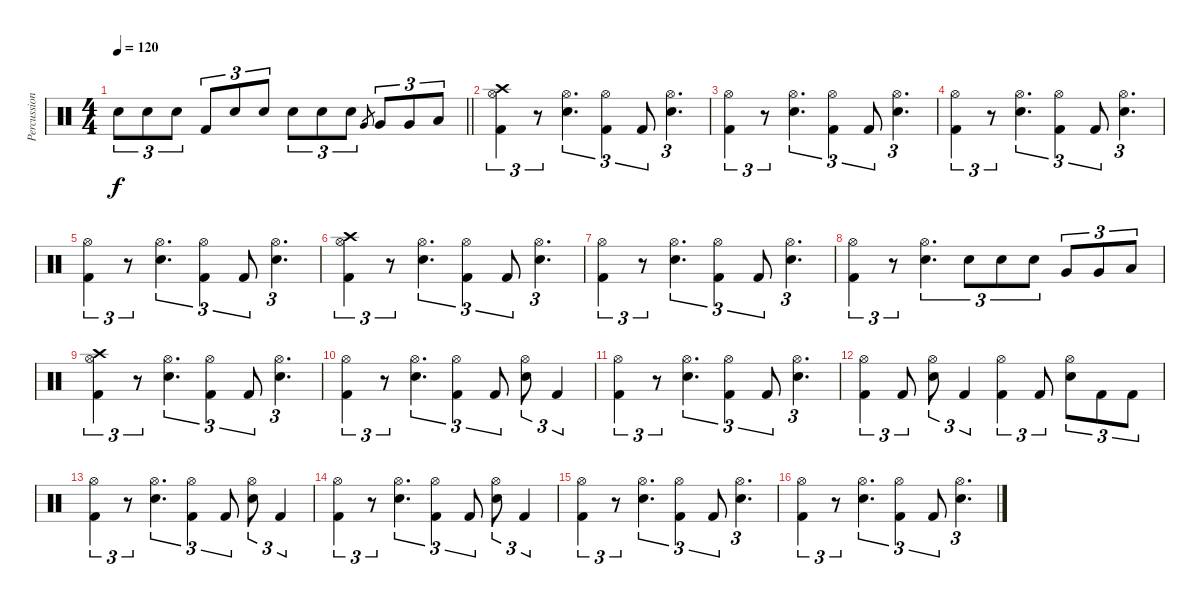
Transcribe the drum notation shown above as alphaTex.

\track ("Percussion" "Percussion") {instrument percussion}
\staff {score}
\articulation defaults
\ts (4 4)
\tempo 120
\clef neutral
\barLineRight lightlight
\ks c "Electric Snare (hit)".8{tu (3 2) dy f} "Electric Snare (hit)".8{tu (3 2)} "Electric Snare (hit)".8{tu (3 2)} "Kick (hit) 2".8{tu (3 2)} "Electric Snare (hit)".8{tu (3 2)} "Electric Snare (hit)".8{tu (3 2)} "Electric Snare (hit)".8{tu (3 2)} "Electric Snare (hit)".8{tu (3 2)} "Electric Snare (hit)".8{tu (3 2)} "Very Low Tom (hit)".8{gr} "Very Low Tom (hit)".8{tu (3 2)} "Very Low Tom (hit)".8{tu (3 2)} "Low Tom (hit)".8{tu (3 2)}
|
\section ("" "")
("Hi-Hat (open)" "Crash high (hit)" "Kick (hit) 2").4{tu (3 2)} r.8{tu (3 2)} ("Hi-Hat (open)" "Electric Snare (hit)").4{d tu (3 2)} ("Hi-Hat (open)" "Kick (hit) 2").4{tu (3 2)} "Kick (hit) 2".8{tu (3 2)} ("Hi-Hat (open)" "Electric Snare (hit)").4{d tu (3 2)} |
("Hi-Hat (open)" "Kick (hit) 2").4{tu (3 2)} r.8{tu (3 2)} ("Hi-Hat (open)" "Electric Snare (hit)").4{d tu (3 2)} ("Hi-Hat (open)" "Kick (hit) 2").4{tu (3 2)} "Kick (hit) 2".8{tu (3 2)} ("Hi-Hat (open)" "Electric Snare (hit)").4{d tu (3 2)} |
("Hi-Hat (open)" "Kick (hit) 2").4{tu (3 2)} r.8{tu (3 2)} ("Hi-Hat (open)" "Electric Snare (hit)").4{d tu (3 2)} ("Hi-Hat (open)" "Kick (hit) 2").4{tu (3 2)} "Kick (hit) 2".8{tu (3 2)} ("Hi-Hat (open)" "Electric Snare (hit)").4{d tu (3 2)} |
("Hi-Hat (open)" "Kick (hit) 2").4{tu (3 2)} r.8{tu (3 2)} ("Hi-Hat (open)" "Electric Snare (hit)").4{d tu (3 2)} ("Hi-Hat (open)" "Kick (hit) 2").4{tu (3 2)} "Kick (hit) 2".8{tu (3 2)} ("Hi-Hat (open)" "Electric Snare (hit)").4{d tu (3 2)} |
("Hi-Hat (open)" "Crash high (hit)" "Kick (hit) 2").4{tu (3 2)} r.8{tu (3 2)} ("Hi-Hat (open)" "Electric Snare (hit)").4{d tu (3 2)} ("Hi-Hat (open)" "Kick (hit) 2").4{tu (3 2)} "Kick (hit) 2".8{tu (3 2)} ("Hi-Hat (open)" "Electric Snare (hit)").4{d tu (3 2)} |
("Hi-Hat (open)" "Kick (hit) 2").4{tu (3 2)} r.8{tu (3 2)} ("Hi-Hat (open)" "Electric Snare (hit)").4{d tu (3 2)} ("Hi-Hat (open)" "Kick (hit) 2").4{tu (3 2)} "Kick (hit) 2".8{tu (3 2)} ("Hi-Hat (open)" "Electric Snare (hit)").4{d tu (3 2)} |
("Hi-Hat (open)" "Kick (hit) 2").4{tu (3 2)} r.8{tu (3 2)} ("Hi-Hat (open)" "Electric Snare (hit)").4{d tu (3 2)} "Electric Snare (hit)".8{tu (3 2)} "Electric Snare (hit)".8{tu (3 2)} "Electric Snare (hit)".8{tu (3 2)} "Very Low Tom (hit)".8{tu (3 2)} "Very Low Tom (hit)".8{tu (3 2)} "Low Tom (hit)".8{tu (3 2)} |
("Hi-Hat (open)" "Crash high (hit)" "Kick (hit) 2").4{tu (3 2)} r.8{tu (3 2)} ("Hi-Hat (open)" "Electric Snare (hit)").4{d tu (3 2)} ("Hi-Hat (open)" "Kick (hit) 2").4{tu (3 2)} "Kick (hit) 2".8{tu (3 2)} ("Hi-Hat (open)" "Electric Snare (hit)").4{d tu (3 2)} |
("Hi-Hat (open)" "Kick (hit) 2").4{tu (3 2)} r.8{tu (3 2)} ("Hi-Hat (open)" "Electric Snare (hit)").4{d tu (3 2)} ("Hi-Hat (open)" "Kick (hit) 2").4{tu (3 2)} "Kick (hit) 2".8{tu (3 2)} ("Hi-Hat (open)" "Electric Snare (hit)").8{tu (3 2)} "Kick (hit) 2".4{tu (3 2)} |
("Hi-Hat (open)" "Kick (hit) 2").4{tu (3 2)} r.8{tu (3 2)} ("Hi-Hat (open)" "Electric Snare (hit)").4{d tu (3 2)} ("Hi-Hat (open)" "Kick (hit) 2").4{tu (3 2)} "Kick (hit) 2".8{tu (3 2)} ("Hi-Hat (open)" "Electric Snare (hit)").4{d tu (3 2)} |
("Hi-Hat (open)" "Kick (hit) 2").4{tu (3 2)} "Kick (hit) 2".8{tu (3 2)} ("Hi-Hat (open)" "Electric Snare (hit)").8{tu (3 2)} "Kick (hit) 2".4{tu (3 2)} ("Hi-Hat (open)" "Kick (hit) 2").4{tu (3 2)} "Kick (hit) 2".8{tu (3 2)} ("Hi-Hat (open)" "Electric Snare (hit)").8{tu (3 2)} "Kick (hit) 2".8{tu (3 2)} "Kick (hit) 2".8{tu (3 2)} |
("Hi-Hat (open)" "Kick (hit) 2").4{tu (3 2)} r.8{tu (3 2)} ("Hi-Hat (open)" "Electric Snare (hit)").4{d tu (3 2)} ("Hi-Hat (open)" "Kick (hit) 2").4{tu (3 2)} "Kick (hit) 2".8{tu (3 2)} ("Hi-Hat (open)" "Electric Snare (hit)").8{tu (3 2)} "Kick (hit) 2".4{tu (3 2)} |
("Hi-Hat (open)" "Kick (hit) 2").4{tu (3 2)} r.8{tu (3 2)} ("Hi-Hat (open)" "Electric Snare (hit)").4{d tu (3 2)} ("Hi-Hat (open)" "Kick (hit) 2").4{tu (3 2)} "Kick (hit) 2".8{tu (3 2)} ("Hi-Hat (open)" "Electric Snare (hit)").8{tu (3 2)} "Kick (hit) 2".4{tu (3 2)} |
("Hi-Hat (open)" "Kick (hit) 2").4{tu (3 2)} r.8{tu (3 2)} ("Hi-Hat (open)" "Electric Snare (hit)").4{d tu (3 2)} ("Hi-Hat (open)" "Kick (hit) 2").4{tu (3 2)} "Kick (hit) 2".8{tu (3 2)} ("Hi-Hat (open)" "Electric Snare (hit)").4{d tu (3 2)} |
("Hi-Hat (open)" "Kick (hit) 2").4{tu (3 2)} r.8{tu (3 2)} ("Hi-Hat (open)" "Electric Snare (hit)").4{d tu (3 2)} ("Hi-Hat (open)" "Kick (hit) 2").4{tu (3 2)} "Kick (hit) 2".8{tu (3 2)} ("Hi-Hat (open)" "Electric Snare (hit)").4{d tu (3 2)}
